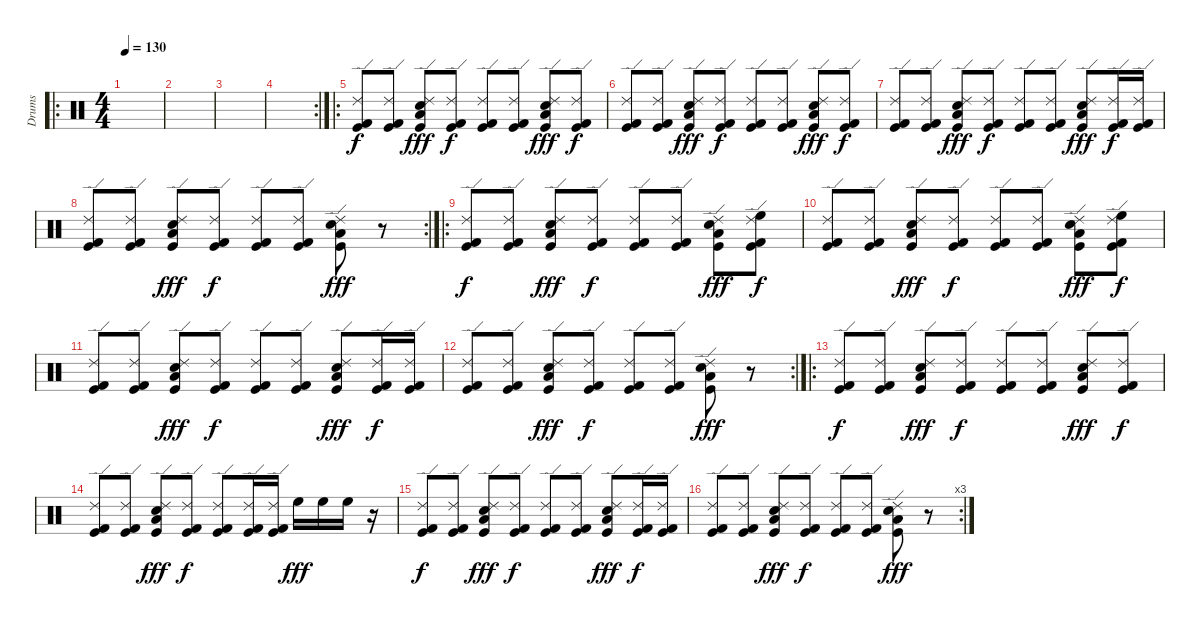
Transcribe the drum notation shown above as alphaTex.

\track ("Drums" "Drums") {instrument percussion}
\staff {score}
\articulation defaults
\ro
\ts (4 4)
\tempo 130
\clef neutral
\ks c
|
|
|
\rc 2
|
\ro
("Ride (edge) 2" "Kick (hit)" "Kick (hit) 2").8 ("Ride (edge) 2" "Kick (hit)" "Kick (hit) 2").8 ("Ride (edge) 2" "Low Floor Tom (hit)" "Kick (hit)" "Snare (hit) 2").8{dy fff} ("Ride (edge) 2" "Kick (hit)" "Kick (hit) 2").8{dy f} ("Ride (edge) 2" "Kick (hit)" "Kick (hit) 2").8 ("Ride (edge) 2" "Kick (hit)" "Kick (hit) 2").8 ("Ride (edge) 2" "Low Floor Tom (hit)" "Kick (hit)" "Snare (hit) 2").8{dy fff} ("Ride (edge) 2" "Kick (hit)" "Kick (hit) 2").8{dy f} |
("Ride (edge) 2" "Kick (hit)" "Kick (hit) 2").8 ("Ride (edge) 2" "Kick (hit)" "Kick (hit) 2").8 ("Ride (edge) 2" "Low Floor Tom (hit)" "Kick (hit)" "Snare (hit) 2").8{dy fff} ("Ride (edge) 2" "Kick (hit)" "Kick (hit) 2").8{dy f} ("Ride (edge) 2" "Kick (hit)" "Kick (hit) 2").8 ("Ride (edge) 2" "Kick (hit)" "Kick (hit) 2").8 ("Ride (edge) 2" "Low Floor Tom (hit)" "Kick (hit)" "Snare (hit) 2").8{dy fff} ("Ride (edge) 2" "Kick (hit)" "Kick (hit) 2").8{dy f} |
("Ride (edge) 2" "Kick (hit)" "Kick (hit) 2").8 ("Ride (edge) 2" "Kick (hit)" "Kick (hit) 2").8 ("Ride (edge) 2" "Low Floor Tom (hit)" "Kick (hit)" "Snare (hit) 2").8{dy fff} ("Ride (edge) 2" "Kick (hit)" "Kick (hit) 2").8{dy f} ("Ride (edge) 2" "Kick (hit)" "Kick (hit) 2").8 ("Ride (edge) 2" "Kick (hit)" "Kick (hit) 2").8 ("Ride (edge) 2" "Low Floor Tom (hit)" "Kick (hit)" "Snare (hit) 2").8{dy fff} ("Ride (edge) 2" "Kick (hit)" "Kick (hit) 2").16{dy f} ("Ride (edge) 2" "Kick (hit)" "Kick (hit) 2").16 |
\rc 2
("Ride (edge) 2" "Kick (hit)" "Kick (hit) 2").8 ("Ride (edge) 2" "Kick (hit)" "Kick (hit) 2").8 ("Ride (edge) 2" "Low Floor Tom (hit)" "Kick (hit)" "Snare (hit) 2").8{dy fff} ("Ride (edge) 2" "Kick (hit)" "Kick (hit) 2").8{dy f} ("Ride (edge) 2" "Kick (hit)" "Kick (hit) 2").8 ("Ride (edge) 2" "Kick (hit)" "Kick (hit) 2").8 ("Ride (edge) 2" "Low Floor Tom (hit)" "Kick (hit)" "Snare (hit) 2").8{dy fff} r.8 |
\ro
("Ride (edge) 2" "Kick (hit)" "Kick (hit) 2").8{dy f} ("Ride (edge) 2" "Kick (hit)" "Kick (hit) 2").8 ("Ride (edge) 2" "Low Floor Tom (hit)" "Kick (hit)" "Snare (hit) 2").8{dy fff} ("Ride (edge) 2" "Kick (hit)" "Kick (hit) 2").8{dy f} ("Ride (edge) 2" "Kick (hit)" "Kick (hit) 2").8 ("Ride (edge) 2" "Kick (hit)" "Kick (hit) 2").8 ("Ride (edge) 2" "Low Floor Tom (hit)" "Kick (hit)" "Snare (hit) 2").8{dy fff} ("Ride (edge) 2" "High Floor Tom (hit)" "Kick (hit)" "Kick (hit) 2").8{dy f} |
("Ride (edge) 2" "Kick (hit)" "Kick (hit) 2").8 ("Ride (edge) 2" "Kick (hit)" "Kick (hit) 2").8 ("Ride (edge) 2" "Low Floor Tom (hit)" "Kick (hit)" "Snare (hit) 2").8{dy fff} ("Ride (edge) 2" "Kick (hit)" "Kick (hit) 2").8{dy f} ("Ride (edge) 2" "Kick (hit)" "Kick (hit) 2").8 ("Ride (edge) 2" "Kick (hit)" "Kick (hit) 2").8 ("Ride (edge) 2" "Low Floor Tom (hit)" "Kick (hit)" "Snare (hit) 2").8{dy fff} ("Ride (edge) 2" "High Floor Tom (hit)" "Kick (hit)" "Kick (hit) 2").8{dy f} |
("Ride (edge) 2" "Kick (hit)" "Kick (hit) 2").8 ("Ride (edge) 2" "Kick (hit)" "Kick (hit) 2").8 ("Ride (edge) 2" "Low Floor Tom (hit)" "Kick (hit)" "Snare (hit) 2").8{dy fff} ("Ride (edge) 2" "Kick (hit)" "Kick (hit) 2").8{dy f} ("Ride (edge) 2" "Kick (hit)" "Kick (hit) 2").8 ("Ride (edge) 2" "Kick (hit)" "Kick (hit) 2").8 ("Ride (edge) 2" "Low Floor Tom (hit)" "Kick (hit)" "Snare (hit) 2").8{dy fff} ("Ride (edge) 2" "Kick (hit)" "Kick (hit) 2").16{dy f} ("Ride (edge) 2" "Kick (hit)" "Kick (hit) 2").16 |
\rc 2
("Ride (edge) 2" "Kick (hit)" "Kick (hit) 2").8 ("Ride (edge) 2" "Kick (hit)" "Kick (hit) 2").8 ("Ride (edge) 2" "Low Floor Tom (hit)" "Kick (hit)" "Snare (hit) 2").8{dy fff} ("Ride (edge) 2" "Kick (hit)" "Kick (hit) 2").8{dy f} ("Ride (edge) 2" "Kick (hit)" "Kick (hit) 2").8 ("Ride (edge) 2" "Kick (hit)" "Kick (hit) 2").8 ("Ride (edge) 2" "Low Floor Tom (hit)" "Kick (hit)" "Snare (hit) 2").8{dy fff} r.8 |
\ro
("Ride (edge) 2" "Kick (hit)" "Kick (hit) 2").8{dy f} ("Ride (edge) 2" "Kick (hit)" "Kick (hit) 2").8 ("Ride (edge) 2" "Low Floor Tom (hit)" "Kick (hit)" "Snare (hit) 2").8{dy fff} ("Ride (edge) 2" "Kick (hit)" "Kick (hit) 2").8{dy f} ("Ride (edge) 2" "Kick (hit)" "Kick (hit) 2").8 ("Ride (edge) 2" "Kick (hit)" "Kick (hit) 2").8 ("Ride (edge) 2" "Low Floor Tom (hit)" "Kick (hit)" "Snare (hit) 2").8{dy fff} ("Ride (edge) 2" "Kick (hit)" "Kick (hit) 2").8{dy f} |
("Ride (edge) 2" "Kick (hit)" "Kick (hit) 2").8 ("Ride (edge) 2" "Kick (hit)" "Kick (hit) 2").8 ("Ride (edge) 2" "Low Floor Tom (hit)" "Kick (hit)" "Snare (hit) 2").8{dy fff} ("Ride (edge) 2" "Kick (hit)" "Kick (hit) 2").8{dy f} ("Ride (edge) 2" "Kick (hit)" "Kick (hit) 2").8 ("Ride (edge) 2" "Kick (hit)" "Kick (hit) 2").16 ("Ride (edge) 2" "Kick (hit)" "Kick (hit) 2").16 "High Floor Tom (hit)".16{dy fff} "High Floor Tom (hit)".16 "High Floor Tom (hit)".16 r.16 |
("Ride (edge) 2" "Kick (hit)" "Kick (hit) 2").8{dy f} ("Ride (edge) 2" "Kick (hit)" "Kick (hit) 2").8 ("Ride (edge) 2" "Low Floor Tom (hit)" "Kick (hit)" "Snare (hit) 2").8{dy fff} ("Ride (edge) 2" "Kick (hit)" "Kick (hit) 2").8{dy f} ("Ride (edge) 2" "Kick (hit)" "Kick (hit) 2").8 ("Ride (edge) 2" "Kick (hit)" "Kick (hit) 2").8 ("Ride (edge) 2" "Low Floor Tom (hit)" "Kick (hit)" "Snare (hit) 2").8{dy fff} ("Ride (edge) 2" "Kick (hit)" "Kick (hit) 2").16{dy f} ("Ride (edge) 2" "Kick (hit)" "Kick (hit) 2").16 |
\rc 3
("Ride (edge) 2" "Kick (hit)" "Kick (hit) 2").8 ("Ride (edge) 2" "Kick (hit)" "Kick (hit) 2").8 ("Ride (edge) 2" "Low Floor Tom (hit)" "Kick (hit)" "Snare (hit) 2").8{dy fff} ("Ride (edge) 2" "Kick (hit)" "Kick (hit) 2").8{dy f} ("Ride (edge) 2" "Kick (hit)" "Kick (hit) 2").8 ("Ride (edge) 2" "Kick (hit)" "Kick (hit) 2").8 ("Ride (edge) 2" "Low Floor Tom (hit)" "Kick (hit)" "Snare (hit) 2").8{dy fff} r.8
